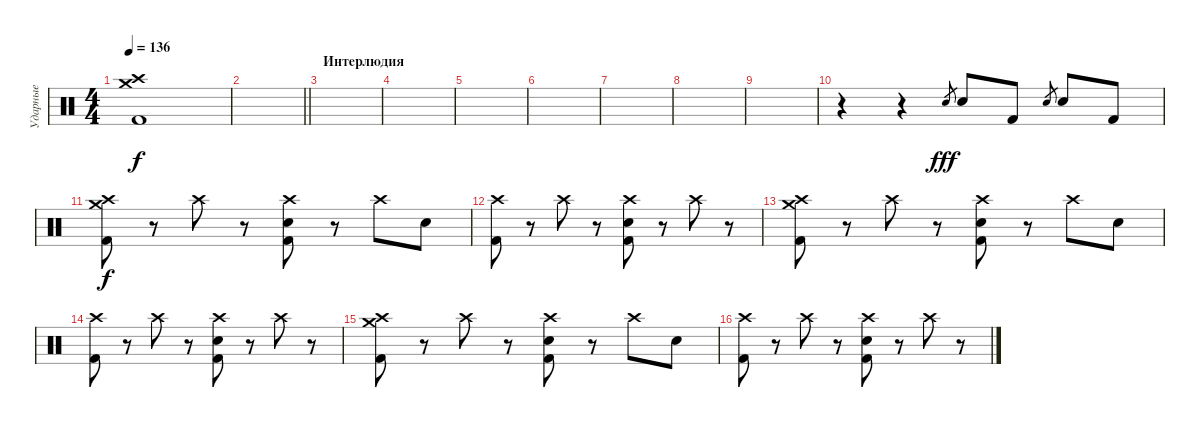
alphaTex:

\track ("Ударные" "Ударные") {instrument percussion}
\staff {score}
\articulation defaults
\ts (4 4)
\tempo 136
\clef neutral
\ks c
("Crash high (hit)" "Crash medium (hit)" "Kick (hit) 2").1{dy f} |
\barLineRight lightlight
|
\section ("" "Интерлюдия")
|
|
|
|
|
|
|
r.4 r.4 "Electric Snare (hit)".8{gr dy fff} "Electric Snare (hit)".8 "Kick (hit) 2".8 "Electric Snare (hit)".8{gr} "Electric Snare (hit)".8 "Kick (hit) 2".8 |
("Crash high (hit)" "Crash medium (hit)" "Kick (hit) 2").8{dy f} r.8 "Crash high (hit)".8 r.8 ("Crash high (hit)" "Electric Snare (hit)" "Kick (hit) 2").8 r.8 "Crash high (hit)".8 "Electric Snare (hit)".8 |
("Crash high (hit)" "Kick (hit) 2").8 r.8 "Crash high (hit)".8 r.8 ("Crash high (hit)" "Electric Snare (hit)" "Kick (hit) 2").8 r.8 "Crash high (hit)".8 r.8 |
("Crash high (hit)" "Crash medium (hit)" "Kick (hit) 2").8 r.8 "Crash high (hit)".8 r.8 ("Crash high (hit)" "Electric Snare (hit)" "Kick (hit) 2").8 r.8 "Crash high (hit)".8 "Electric Snare (hit)".8 |
("Crash high (hit)" "Kick (hit) 2").8 r.8 "Crash high (hit)".8 r.8 ("Crash high (hit)" "Electric Snare (hit)" "Kick (hit) 2").8 r.8 "Crash high (hit)".8 r.8 |
("Crash high (hit)" "Crash medium (hit)" "Kick (hit) 2").8 r.8 "Crash high (hit)".8 r.8 ("Crash high (hit)" "Electric Snare (hit)" "Kick (hit) 2").8 r.8 "Crash high (hit)".8 "Electric Snare (hit)".8 |
("Crash high (hit)" "Kick (hit) 2").8 r.8 "Crash high (hit)".8 r.8 ("Crash high (hit)" "Electric Snare (hit)" "Kick (hit) 2").8 r.8 "Crash high (hit)".8 r.8
